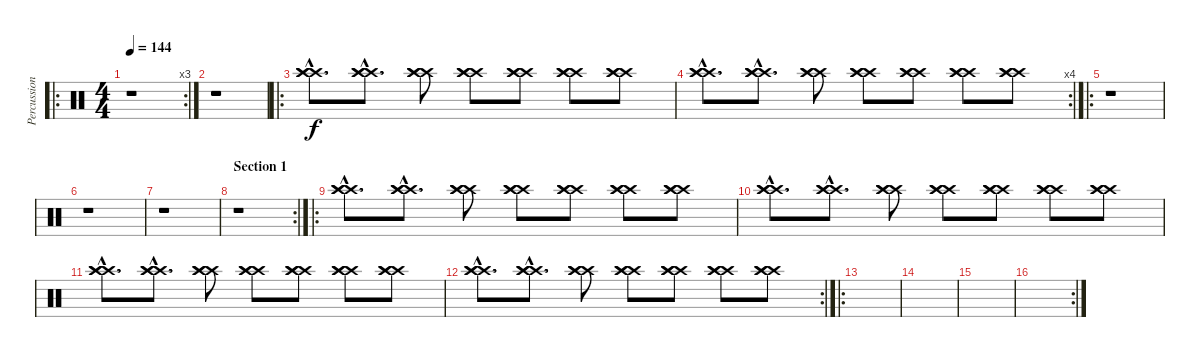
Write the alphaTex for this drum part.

\track ("Percussion 2" "Percussion") {instrument percussion}
\staff {score}
\articulation defaults
\ro
\rc 3
\ts (4 4)
\tempo 144
\clef neutral
\ks c
r.1{dy f} |
r.1 |
\ro
("Crash high (hit)"{hac} "Crash high (hit)"{hac} "Crash high (hit)"{hac}).8{d} ("Crash high (hit)"{hac} "Crash high (hit)" "Crash high (hit)").8{d} ("Crash high (hit)" "Crash high (hit)" "Crash high (hit)").8 ("Crash high (hit)" "Crash high (hit)" "Crash high (hit)").8 ("Crash high (hit)" "Crash high (hit)" "Crash high (hit)").8 ("Crash high (hit)" "Crash high (hit)" "Crash high (hit)").8 ("Crash high (hit)" "Crash high (hit)" "Crash high (hit)").8 |
\rc 4
("Crash high (hit)"{hac} "Crash high (hit)"{hac} "Crash high (hit)"{hac}).8{d} ("Crash high (hit)"{hac} "Crash high (hit)"{hac} "Crash high (hit)"{hac}).8{d} ("Crash high (hit)" "Crash high (hit)" "Crash high (hit)").8 ("Crash high (hit)" "Crash high (hit)" "Crash high (hit)").8 ("Crash high (hit)" "Crash high (hit)" "Crash high (hit)").8 ("Crash high (hit)" "Crash high (hit)" "Crash high (hit)").8 ("Crash high (hit)" "Crash high (hit)" "Crash high (hit)").8 |
\ro
r.1 |
r.1 |
r.1 |
\rc 2
\section ("" "Section 1")
r.1 |
\ro
("Crash high (hit)"{hac} "Crash high (hit)"{hac} "Crash high (hit)"{hac}).8{d} ("Crash high (hit)"{hac} "Crash high (hit)" "Crash high (hit)").8{d} ("Crash high (hit)" "Crash high (hit)" "Crash high (hit)").8 ("Crash high (hit)" "Crash high (hit)" "Crash high (hit)").8 ("Crash high (hit)" "Crash high (hit)" "Crash high (hit)").8 ("Crash high (hit)" "Crash high (hit)" "Crash high (hit)").8 ("Crash high (hit)" "Crash high (hit)" "Crash high (hit)").8 |
("Crash high (hit)"{hac} "Crash high (hit)"{hac} "Crash high (hit)"{hac}).8{d} ("Crash high (hit)"{hac} "Crash high (hit)" "Crash high (hit)").8{d} ("Crash high (hit)" "Crash high (hit)" "Crash high (hit)").8 ("Crash high (hit)" "Crash high (hit)" "Crash high (hit)").8 ("Crash high (hit)" "Crash high (hit)" "Crash high (hit)").8 ("Crash high (hit)" "Crash high (hit)" "Crash high (hit)").8 ("Crash high (hit)" "Crash high (hit)" "Crash high (hit)").8 |
("Crash high (hit)"{hac} "Crash high (hit)"{hac} "Crash high (hit)"{hac}).8{d} ("Crash high (hit)"{hac} "Crash high (hit)" "Crash high (hit)").8{d} ("Crash high (hit)" "Crash high (hit)" "Crash high (hit)").8 ("Crash high (hit)" "Crash high (hit)" "Crash high (hit)").8 ("Crash high (hit)" "Crash high (hit)" "Crash high (hit)").8 ("Crash high (hit)" "Crash high (hit)" "Crash high (hit)").8 ("Crash high (hit)" "Crash high (hit)" "Crash high (hit)").8 |
\rc 2
("Crash high (hit)"{hac} "Crash high (hit)"{hac} "Crash high (hit)"{hac}).8{d} ("Crash high (hit)"{hac} "Crash high (hit)" "Crash high (hit)").8{d} ("Crash high (hit)" "Crash high (hit)" "Crash high (hit)").8 ("Crash high (hit)" "Crash high (hit)" "Crash high (hit)").8 ("Crash high (hit)" "Crash high (hit)" "Crash high (hit)").8 ("Crash high (hit)" "Crash high (hit)" "Crash high (hit)").8 ("Crash high (hit)" "Crash high (hit)" "Crash high (hit)").8 |
\ro
|
|
|
\rc 2
